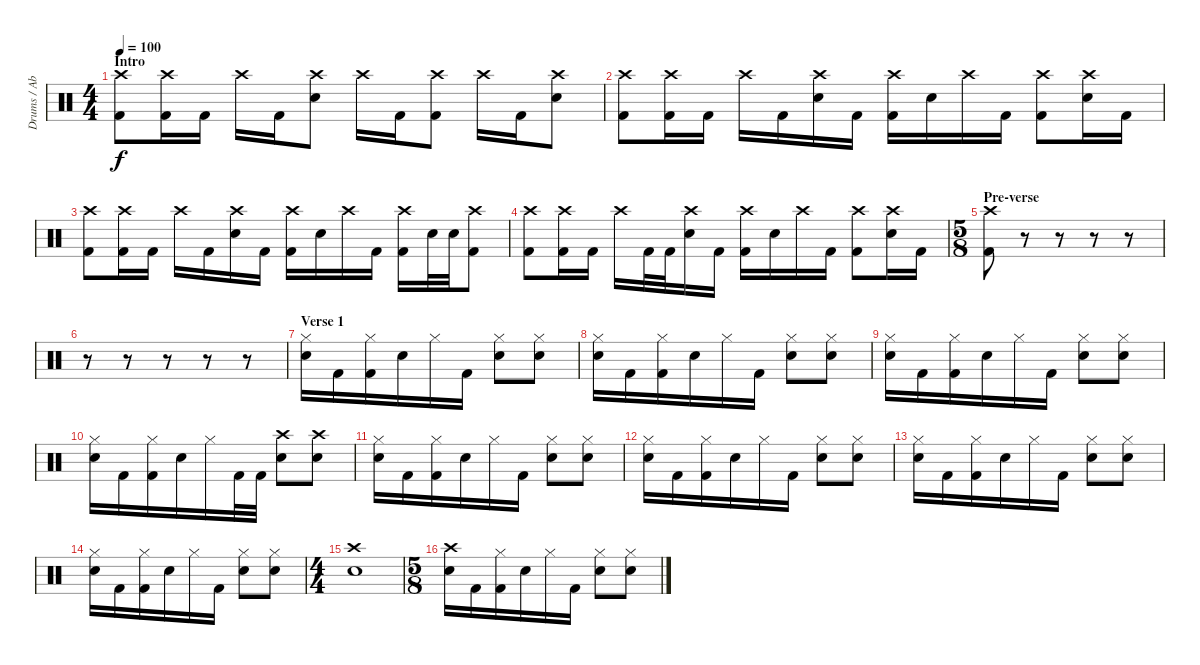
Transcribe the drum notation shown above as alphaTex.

\track ("Drums / Abe Cunningham" "Drums / Ab") {instrument percussion}
\staff {score}
\articulation defaults
\ts (4 4)
\section ("" "Intro")
\tempo 100
\clef neutral
\ks c
("Crash high (hit)" "Kick (hit) 2").8{dy f} ("Crash high (hit)" "Kick (hit) 2").16 "Kick (hit) 2".16 "Crash high (hit)".16 "Kick (hit) 2".16 ("Crash high (hit)" "Electric Snare (hit)").8 "Crash high (hit)".16 "Kick (hit) 2".16 ("Crash high (hit)" "Kick (hit) 2").8 "Crash high (hit)".16 "Kick (hit) 2".16 ("Crash high (hit)" "Electric Snare (hit)").8 |
("Crash high (hit)" "Kick (hit) 2").8 ("Crash high (hit)" "Kick (hit) 2").16 "Kick (hit) 2".16 "Crash high (hit)".16 "Kick (hit) 2".16 ("Crash high (hit)" "Electric Snare (hit)").16 "Kick (hit) 2".16 ("Crash high (hit)" "Kick (hit) 2").16 "Electric Snare (hit)".16 "Crash high (hit)".16 "Kick (hit) 2".16 ("Crash high (hit)" "Kick (hit) 2").8 ("Crash high (hit)" "Electric Snare (hit)").16 "Kick (hit) 2".16 |
("Crash high (hit)" "Kick (hit) 2").8 ("Crash high (hit)" "Kick (hit) 2").16 "Kick (hit) 2".16 "Crash high (hit)".16 "Kick (hit) 2".16 ("Crash high (hit)" "Electric Snare (hit)").16 "Kick (hit) 2".16 ("Crash high (hit)" "Kick (hit) 2").16 "Electric Snare (hit)".16 "Crash high (hit)".16 "Kick (hit) 2".16 ("Crash high (hit)" "Kick (hit) 2").16 "Electric Snare (hit)".32 "Electric Snare (hit)".32 ("Crash high (hit)" "Kick (hit) 2").8 |
("Crash high (hit)" "Kick (hit) 2").8 ("Crash high (hit)" "Kick (hit) 2").16 "Kick (hit) 2".16 "Crash high (hit)".16 "Kick (hit) 2".32 "Kick (hit) 2".32 ("Crash high (hit)" "Electric Snare (hit)").16 "Kick (hit) 2".16 ("Crash high (hit)" "Kick (hit) 2").16 "Electric Snare (hit)".16 "Crash high (hit)".16 "Kick (hit) 2".16 ("Crash high (hit)" "Kick (hit) 2").8 ("Crash high (hit)" "Electric Snare (hit)").16 "Kick (hit) 2".16 |
\ts (5 8)
\section ("" "Pre-verse")
("Crash high (hit)" "Kick (hit) 2").8 r.8 r.8 r.8 r.8 |
r.8 r.8 r.8 r.8 r.8 |
\section ("" "Verse 1")
("Hi-Hat (closed)" "Electric Snare (hit)").16 "Kick (hit) 2".16 ("Hi-Hat (closed)" "Kick (hit) 2").16 "Electric Snare (hit)".16 "Hi-Hat (closed)".16 "Kick (hit) 2".16 ("Hi-Hat (closed)" "Electric Snare (hit)").8 ("Hi-Hat (closed)" "Electric Snare (hit)").8 |
("Hi-Hat (closed)" "Electric Snare (hit)").16 "Kick (hit) 2".16 ("Hi-Hat (closed)" "Kick (hit) 2").16 "Electric Snare (hit)".16 "Hi-Hat (closed)".16 "Kick (hit) 2".16 ("Hi-Hat (closed)" "Electric Snare (hit)").8 ("Hi-Hat (closed)" "Electric Snare (hit)").8 |
("Hi-Hat (closed)" "Electric Snare (hit)").16 "Kick (hit) 2".16 ("Hi-Hat (closed)" "Kick (hit) 2").16 "Electric Snare (hit)".16 "Hi-Hat (closed)".16 "Kick (hit) 2".16 ("Hi-Hat (closed)" "Electric Snare (hit)").8 ("Hi-Hat (closed)" "Electric Snare (hit)").8 |
("Hi-Hat (closed)" "Electric Snare (hit)").16 "Kick (hit) 2".16 ("Hi-Hat (closed)" "Kick (hit) 2").16 "Electric Snare (hit)".16 "Hi-Hat (closed)".16 "Kick (hit) 2".32 "Kick (hit) 2".32 ("Crash high (hit)" "Electric Snare (hit)").8 ("Crash high (hit)" "Electric Snare (hit)").8 |
("Hi-Hat (closed)" "Electric Snare (hit)").16 "Kick (hit) 2".16 ("Hi-Hat (closed)" "Kick (hit) 2").16 "Electric Snare (hit)".16 "Hi-Hat (closed)".16 "Kick (hit) 2".16 ("Hi-Hat (closed)" "Electric Snare (hit)").8 ("Hi-Hat (closed)" "Electric Snare (hit)").8 |
("Hi-Hat (closed)" "Electric Snare (hit)").16 "Kick (hit) 2".16 ("Hi-Hat (closed)" "Kick (hit) 2").16 "Electric Snare (hit)".16 "Hi-Hat (closed)".16 "Kick (hit) 2".16 ("Hi-Hat (closed)" "Electric Snare (hit)").8 ("Hi-Hat (closed)" "Electric Snare (hit)").8 |
("Hi-Hat (closed)" "Electric Snare (hit)").16 "Kick (hit) 2".16 ("Hi-Hat (closed)" "Kick (hit) 2").16 "Electric Snare (hit)".16 "Hi-Hat (closed)".16 "Kick (hit) 2".16 ("Hi-Hat (closed)" "Electric Snare (hit)").8 ("Hi-Hat (closed)" "Electric Snare (hit)").8 |
("Hi-Hat (closed)" "Electric Snare (hit)").16 "Kick (hit) 2".16 ("Hi-Hat (closed)" "Kick (hit) 2").16 "Electric Snare (hit)".16 "Hi-Hat (closed)".16 "Kick (hit) 2".16 ("Hi-Hat (closed)" "Electric Snare (hit)").8 ("Hi-Hat (closed)" "Electric Snare (hit)").8 |
\ts (4 4)
("Crash high (hit)" "Electric Snare (hit)").1 |
\ts (5 8)
("Crash high (hit)" "Electric Snare (hit)").16 "Kick (hit) 2".16 ("Hi-Hat (closed)" "Kick (hit) 2").16 "Electric Snare (hit)".16 "Hi-Hat (closed)".16 "Kick (hit) 2".16 ("Hi-Hat (closed)" "Electric Snare (hit)").8 ("Hi-Hat (closed)" "Electric Snare (hit)").8
